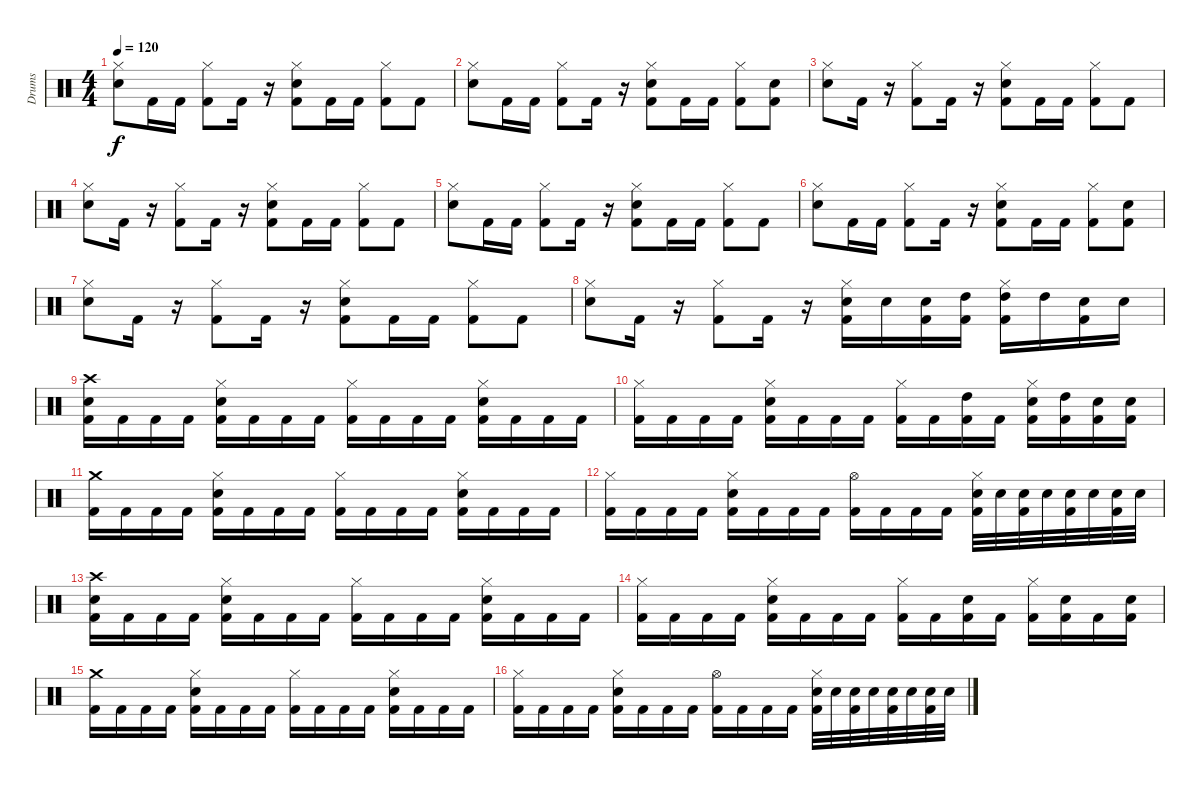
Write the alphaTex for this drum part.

\track ("Drums" "Drums") {instrument percussion}
\staff {score}
\articulation defaults
\ts (4 4)
\tempo 120
\clef neutral
\ks c
("Hi-Hat (closed)" "Snare (hit) 2").8{dy f} "Kick (hit) 2".16 "Kick (hit) 2".16 ("Hi-Hat (closed)" "Kick (hit) 2").8 "Kick (hit) 2".16 r.16 ("Hi-Hat (closed)" "Snare (hit) 2" "Kick (hit) 2").8 "Kick (hit) 2".16 "Kick (hit) 2".16 ("Hi-Hat (closed)" "Kick (hit) 2").8 "Kick (hit) 2".8 |
("Hi-Hat (closed)" "Snare (hit) 2").8 "Kick (hit) 2".16 "Kick (hit) 2".16 ("Hi-Hat (closed)" "Kick (hit) 2").8 "Kick (hit) 2".16 r.16 ("Hi-Hat (closed)" "Snare (hit) 2" "Kick (hit) 2").8 "Kick (hit) 2".16 "Kick (hit) 2".16 ("Hi-Hat (closed)" "Kick (hit) 2").8 ("Snare (hit) 2" "Kick (hit) 2").8 |
("Hi-Hat (closed)" "Snare (hit) 2").8 "Kick (hit) 2".16 r.16 ("Hi-Hat (closed)" "Kick (hit) 2").8 "Kick (hit) 2".16 r.16 ("Hi-Hat (closed)" "Snare (hit) 2" "Kick (hit) 2").8 "Kick (hit) 2".16 "Kick (hit) 2".16 ("Hi-Hat (closed)" "Kick (hit) 2").8 "Kick (hit) 2".8 |
("Hi-Hat (closed)" "Snare (hit) 2").8 "Kick (hit) 2".16 r.16 ("Hi-Hat (closed)" "Kick (hit) 2").8 "Kick (hit) 2".16 r.16 ("Hi-Hat (closed)" "Snare (hit) 2" "Kick (hit) 2").8 "Kick (hit) 2".16 "Kick (hit) 2".16 ("Hi-Hat (closed)" "Kick (hit) 2").8 "Kick (hit) 2".8 |
("Hi-Hat (closed)" "Snare (hit) 2").8 "Kick (hit) 2".16 "Kick (hit) 2".16 ("Hi-Hat (closed)" "Kick (hit) 2").8 "Kick (hit) 2".16 r.16 ("Hi-Hat (closed)" "Snare (hit) 2" "Kick (hit) 2").8 "Kick (hit) 2".16 "Kick (hit) 2".16 ("Hi-Hat (closed)" "Kick (hit) 2").8 "Kick (hit) 2".8 |
("Hi-Hat (closed)" "Snare (hit) 2").8 "Kick (hit) 2".16 "Kick (hit) 2".16 ("Hi-Hat (closed)" "Kick (hit) 2").8 "Kick (hit) 2".16 r.16 ("Hi-Hat (closed)" "Snare (hit) 2" "Kick (hit) 2").8 "Kick (hit) 2".16 "Kick (hit) 2".16 ("Hi-Hat (closed)" "Kick (hit) 2").8 ("Snare (hit) 2" "Kick (hit) 2").8 |
("Hi-Hat (closed)" "Snare (hit) 2").8 "Kick (hit) 2".16 r.16 ("Hi-Hat (closed)" "Kick (hit) 2").8 "Kick (hit) 2".16 r.16 ("Hi-Hat (closed)" "Snare (hit) 2" "Kick (hit) 2").8 "Kick (hit) 2".16 "Kick (hit) 2".16 ("Hi-Hat (closed)" "Kick (hit) 2").8 "Kick (hit) 2".8 |
("Hi-Hat (closed)" "Snare (hit) 2").8 "Kick (hit) 2".16 r.16 ("Hi-Hat (closed)" "Kick (hit) 2").8 "Kick (hit) 2".16 r.16 ("Hi-Hat (closed)" "Snare (hit) 2" "Kick (hit) 2").16 "Snare (hit) 2".16 ("Snare (hit) 2" "Kick (hit) 2").16 ("High Tom (hit)" "Kick (hit) 2").16 ("Hi-Hat (closed)" "High Tom (hit)" "Kick (hit) 2").16 "High Tom (hit)".16 ("Snare (hit) 2" "Kick (hit) 2").16 "Snare (hit) 2".16 |
("Crash high (hit)" "Snare (hit) 2" "Kick (hit) 2").16 "Kick (hit) 2".16 "Kick (hit) 2".16 "Kick (hit) 2".16 ("Hi-Hat (closed)" "Snare (hit) 2" "Kick (hit) 2").16 "Kick (hit) 2".16 "Kick (hit) 2".16 "Kick (hit) 2".16 ("Hi-Hat (closed)" "Kick (hit) 2").16 "Kick (hit) 2".16 "Kick (hit) 2".16 "Kick (hit) 2".16 ("Hi-Hat (closed)" "Snare (hit) 2" "Kick (hit) 2").16 "Kick (hit) 2".16 "Kick (hit) 2".16 "Kick (hit) 2".16 |
("Hi-Hat (closed)" "Kick (hit) 2").16 "Kick (hit) 2".16 "Kick (hit) 2".16 "Kick (hit) 2".16 ("Hi-Hat (closed)" "Snare (hit) 2" "Kick (hit) 2").16 "Kick (hit) 2".16 "Kick (hit) 2".16 "Kick (hit) 2".16 ("Hi-Hat (closed)" "Kick (hit) 2").16 "Kick (hit) 2".16 ("High Tom (hit)" "Kick (hit) 2").16 "Kick (hit) 2".16 ("Hi-Hat (closed)" "Snare (hit) 2" "Kick (hit) 2").16 ("High Tom (hit)" "Kick (hit) 2").16 ("Snare (hit) 2" "Kick (hit) 2").16 ("Snare (hit) 2" "Kick (hit) 2").16 |
("Crash medium (hit)" "Kick (hit) 2").16 "Kick (hit) 2".16 "Kick (hit) 2".16 "Kick (hit) 2".16 ("Hi-Hat (closed)" "Snare (hit) 2" "Kick (hit) 2").16 "Kick (hit) 2".16 "Kick (hit) 2".16 "Kick (hit) 2".16 ("Hi-Hat (closed)" "Kick (hit) 2").16 "Kick (hit) 2".16 "Kick (hit) 2".16 "Kick (hit) 2".16 ("Hi-Hat (closed)" "Snare (hit) 2" "Kick (hit) 2").16 "Kick (hit) 2".16 "Kick (hit) 2".16 "Kick (hit) 2".16 |
("Hi-Hat (closed)" "Kick (hit) 2").16 "Kick (hit) 2".16 "Kick (hit) 2".16 "Kick (hit) 2".16 ("Hi-Hat (closed)" "Snare (hit) 2" "Kick (hit) 2").16 "Kick (hit) 2".16 "Kick (hit) 2".16 "Kick (hit) 2".16 ("Hi-Hat (open)" "Kick (hit) 2").16 "Kick (hit) 2".16 "Kick (hit) 2".16 "Kick (hit) 2".16 ("Hi-Hat (closed)" "Snare (hit) 2" "Kick (hit) 2").32 "Snare (hit) 2".32 ("Snare (hit) 2" "Kick (hit) 2").32 "Snare (hit) 2".32 ("Snare (hit) 2" "Kick (hit) 2").32 "Snare (hit) 2".32 ("Snare (hit) 2" "Kick (hit) 2").32 "Snare (hit) 2".32 |
("Crash high (hit)" "Snare (hit) 2" "Kick (hit) 2").16 "Kick (hit) 2".16 "Kick (hit) 2".16 "Kick (hit) 2".16 ("Hi-Hat (closed)" "Snare (hit) 2" "Kick (hit) 2").16 "Kick (hit) 2".16 "Kick (hit) 2".16 "Kick (hit) 2".16 ("Hi-Hat (closed)" "Kick (hit) 2").16 "Kick (hit) 2".16 "Kick (hit) 2".16 "Kick (hit) 2".16 ("Hi-Hat (closed)" "Snare (hit) 2" "Kick (hit) 2").16 "Kick (hit) 2".16 "Kick (hit) 2".16 "Kick (hit) 2".16 |
("Hi-Hat (closed)" "Kick (hit) 2").16 "Kick (hit) 2".16 "Kick (hit) 2".16 "Kick (hit) 2".16 ("Hi-Hat (closed)" "Snare (hit) 2" "Kick (hit) 2").16 "Kick (hit) 2".16 "Kick (hit) 2".16 "Kick (hit) 2".16 ("Hi-Hat (closed)" "Kick (hit) 2").16 "Kick (hit) 2".16 ("Snare (hit) 2" "Kick (hit) 2").16 "Kick (hit) 2".16 ("Hi-Hat (closed)" "Kick (hit) 2").16 ("Snare (hit) 2" "Kick (hit) 2").16 "Kick (hit) 2".16 ("Snare (hit) 2" "Kick (hit) 2").16 |
("Crash medium (hit)" "Kick (hit) 2").16 "Kick (hit) 2".16 "Kick (hit) 2".16 "Kick (hit) 2".16 ("Hi-Hat (closed)" "Snare (hit) 2" "Kick (hit) 2").16 "Kick (hit) 2".16 "Kick (hit) 2".16 "Kick (hit) 2".16 ("Hi-Hat (closed)" "Kick (hit) 2").16 "Kick (hit) 2".16 "Kick (hit) 2".16 "Kick (hit) 2".16 ("Hi-Hat (closed)" "Snare (hit) 2" "Kick (hit) 2").16 "Kick (hit) 2".16 "Kick (hit) 2".16 "Kick (hit) 2".16 |
("Hi-Hat (closed)" "Kick (hit) 2").16 "Kick (hit) 2".16 "Kick (hit) 2".16 "Kick (hit) 2".16 ("Hi-Hat (closed)" "Snare (hit) 2" "Kick (hit) 2").16 "Kick (hit) 2".16 "Kick (hit) 2".16 "Kick (hit) 2".16 ("Hi-Hat (open)" "Kick (hit) 2").16 "Kick (hit) 2".16 "Kick (hit) 2".16 "Kick (hit) 2".16 ("Hi-Hat (closed)" "Snare (hit) 2" "Kick (hit) 2").32 "Snare (hit) 2".32 ("Snare (hit) 2" "Kick (hit) 2").32 "Snare (hit) 2".32 ("Snare (hit) 2" "Kick (hit) 2").32 "Snare (hit) 2".32 ("Snare (hit) 2" "Kick (hit) 2").32 "Snare (hit) 2".32
